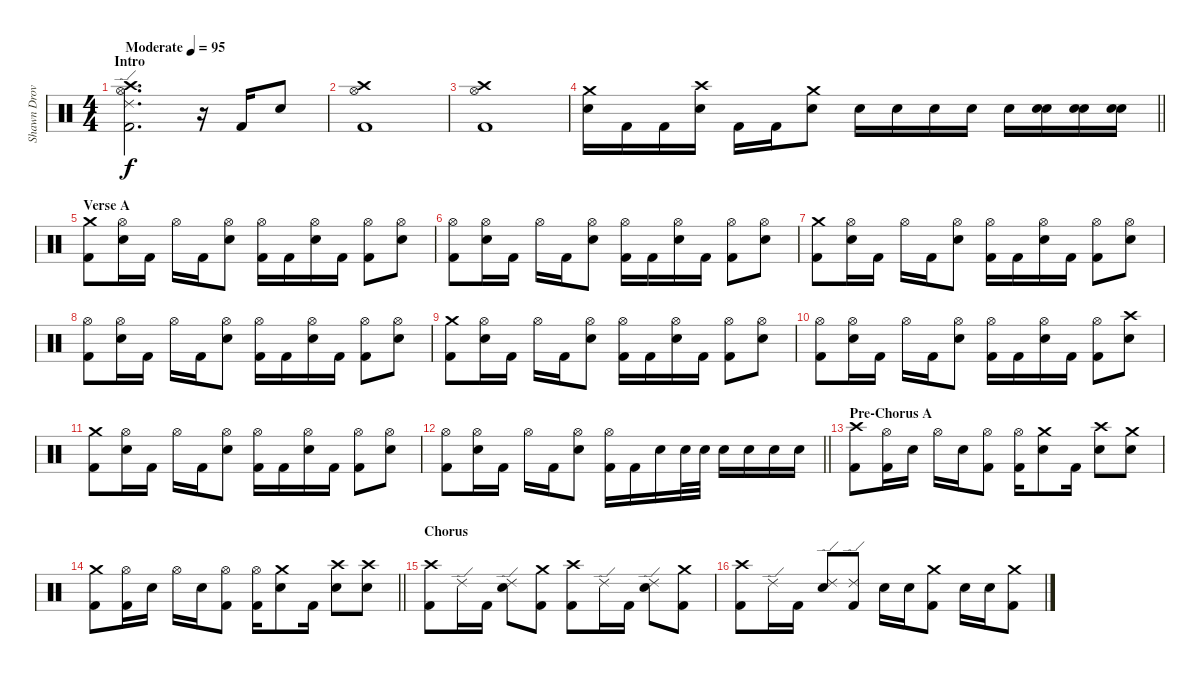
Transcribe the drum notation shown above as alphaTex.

\track ("Shawn Drover" "Shawn Drov") {instrument percussion}
\staff {score}
\articulation defaults
\ts (4 4)
\section ("" "Intro")
\tempo (95 "Moderate")
\clef neutral
\ks c
("Crash high (hit)" "Hi-Hat (open)" "Ride (edge) 2" "Kick (hit) 2").2{d dy f} r.16 "Kick (hit) 2".16 "Electric Snare (hit)".8 |
("Crash high (hit)" "Hi-Hat (open)" "Kick (hit) 2").1 |
("Crash high (hit)" "Hi-Hat (open)" "Kick (hit) 2").1 |
\barLineRight lightlight
("Crash medium (hit)" "Electric Snare (hit)").16 "Kick (hit) 2".16 "Kick (hit) 2".16 ("Crash high (hit)" "Electric Snare (hit)").16 "Kick (hit) 2".16 "Kick (hit) 2".16 ("Crash medium (hit)" "Electric Snare (hit)").8 "Electric Snare (hit)".16 "Electric Snare (hit)".16 "Electric Snare (hit)".16 "Electric Snare (hit)".16 "Electric Snare (hit)".16 ("Electric Snare (hit)" "Electric Snare (hit)").16 ("Electric Snare (hit)" "Electric Snare (hit)").16 ("Electric Snare (hit)" "Electric Snare (hit)").16 |
\section ("" "Verse A")
("Crash medium (hit)" "Kick (hit) 2").8 ("Hi-Hat (open)" "Electric Snare (hit)").16 "Kick (hit) 2".16 "Hi-Hat (open)".16 "Kick (hit) 2".16 ("Hi-Hat (open)" "Electric Snare (hit)").8 ("Hi-Hat (open)" "Kick (hit) 2").16 "Kick (hit) 2".16 ("Hi-Hat (open)" "Electric Snare (hit)").16 "Kick (hit) 2".16 ("Hi-Hat (open)" "Kick (hit) 2").8 ("Hi-Hat (open)" "Electric Snare (hit)").8 |
("Hi-Hat (open)" "Kick (hit) 2").8 ("Hi-Hat (open)" "Electric Snare (hit)").16 "Kick (hit) 2".16 "Hi-Hat (open)".16 "Kick (hit) 2".16 ("Hi-Hat (open)" "Electric Snare (hit)").8 ("Hi-Hat (open)" "Kick (hit) 2").16 "Kick (hit) 2".16 ("Hi-Hat (open)" "Electric Snare (hit)").16 "Kick (hit) 2".16 ("Hi-Hat (open)" "Kick (hit) 2").8 ("Hi-Hat (open)" "Electric Snare (hit)").8 |
("Crash medium (hit)" "Kick (hit) 2").8 ("Hi-Hat (open)" "Electric Snare (hit)").16 "Kick (hit) 2".16 "Hi-Hat (open)".16 "Kick (hit) 2".16 ("Hi-Hat (open)" "Electric Snare (hit)").8 ("Hi-Hat (open)" "Kick (hit) 2").16 "Kick (hit) 2".16 ("Hi-Hat (open)" "Electric Snare (hit)").16 "Kick (hit) 2".16 ("Hi-Hat (open)" "Kick (hit) 2").8 ("Hi-Hat (open)" "Electric Snare (hit)").8 |
("Hi-Hat (open)" "Kick (hit) 2").8 ("Hi-Hat (open)" "Electric Snare (hit)").16 "Kick (hit) 2".16 "Hi-Hat (open)".16 "Kick (hit) 2".16 ("Hi-Hat (open)" "Electric Snare (hit)").8 ("Hi-Hat (open)" "Kick (hit) 2").16 "Kick (hit) 2".16 ("Hi-Hat (open)" "Electric Snare (hit)").16 "Kick (hit) 2".16 ("Hi-Hat (open)" "Kick (hit) 2").8 ("Hi-Hat (open)" "Electric Snare (hit)").8 |
("Crash medium (hit)" "Kick (hit) 2").8 ("Hi-Hat (open)" "Electric Snare (hit)").16 "Kick (hit) 2".16 "Hi-Hat (open)".16 "Kick (hit) 2".16 ("Hi-Hat (open)" "Electric Snare (hit)").8 ("Hi-Hat (open)" "Kick (hit) 2").16 "Kick (hit) 2".16 ("Hi-Hat (open)" "Electric Snare (hit)").16 "Kick (hit) 2".16 ("Hi-Hat (open)" "Kick (hit) 2").8 ("Hi-Hat (open)" "Electric Snare (hit)").8 |
("Hi-Hat (open)" "Kick (hit) 2").8 ("Hi-Hat (open)" "Electric Snare (hit)").16 "Kick (hit) 2".16 "Hi-Hat (open)".16 "Kick (hit) 2".16 ("Hi-Hat (open)" "Electric Snare (hit)").8 ("Hi-Hat (open)" "Kick (hit) 2").16 "Kick (hit) 2".16 ("Hi-Hat (open)" "Electric Snare (hit)").16 "Kick (hit) 2".16 ("Hi-Hat (open)" "Kick (hit) 2").8 ("Crash high (hit)" "Electric Snare (hit)").8 |
("Crash medium (hit)" "Kick (hit) 2").8 ("Hi-Hat (open)" "Electric Snare (hit)").16 "Kick (hit) 2".16 "Hi-Hat (open)".16 "Kick (hit) 2".16 ("Hi-Hat (open)" "Electric Snare (hit)").8 ("Hi-Hat (open)" "Kick (hit) 2").16 "Kick (hit) 2".16 ("Hi-Hat (open)" "Electric Snare (hit)").16 "Kick (hit) 2".16 ("Hi-Hat (open)" "Kick (hit) 2").8 ("Hi-Hat (open)" "Electric Snare (hit)").8 |
\barLineRight lightlight
("Hi-Hat (open)" "Kick (hit) 2").8 ("Hi-Hat (open)" "Electric Snare (hit)").16 "Kick (hit) 2".16 "Hi-Hat (open)".16 "Kick (hit) 2".16 ("Hi-Hat (open)" "Electric Snare (hit)").8 ("Hi-Hat (open)" "Kick (hit) 2").16 "Kick (hit) 2".16 "Electric Snare (hit)".16 "Electric Snare (hit)".32 "Electric Snare (hit)".32 "Electric Snare (hit)".16 "Electric Snare (hit)".16 "Electric Snare (hit)".16 "Electric Snare (hit)".16 |
\section ("" "Pre-Chorus A")
("Crash high (hit)" "Kick (hit) 2").8 ("Hi-Hat (open)" "Kick (hit) 2").16 "Electric Snare (hit)".16 "Hi-Hat (open)".16 "Electric Snare (hit)".16 ("Hi-Hat (open)" "Kick (hit) 2").8 ("Hi-Hat (open)" "Kick (hit) 2").16 ("Crash medium (hit)" "Electric Snare (hit)").8 "Kick (hit) 2".16 ("Crash high (hit)" "Electric Snare (hit)").8 ("Crash medium (hit)" "Electric Snare (hit)").8 |
\barLineRight lightlight
("Crash medium (hit)" "Kick (hit) 2").8 ("Hi-Hat (open)" "Kick (hit) 2").16 "Electric Snare (hit)".16 "Hi-Hat (open)".16 "Electric Snare (hit)".16 ("Hi-Hat (open)" "Kick (hit) 2").8 ("Hi-Hat (open)" "Kick (hit) 2").16 ("Crash medium (hit)" "Electric Snare (hit)").8 "Kick (hit) 2".16 ("Crash high (hit)" "Electric Snare (hit)").8 ("Crash high (hit)" "Electric Snare (hit)").8 |
\section ("" "Chorus")
("Crash high (hit)" "Kick (hit) 2").8 "Ride (edge) 2".16 "Kick (hit) 2".16 ("Ride (edge) 2" "Electric Snare (hit)").8 ("Crash medium (hit)" "Kick (hit) 2").8 ("Crash high (hit)" "Kick (hit) 2").8 "Ride (edge) 2".16 "Kick (hit) 2".16 ("Ride (edge) 2" "Electric Snare (hit)").8 ("Crash medium (hit)" "Kick (hit) 2").8 |
("Crash high (hit)" "Kick (hit) 2").8 "Ride (edge) 2".16 "Kick (hit) 2".16 ("Ride (edge) 2" "Electric Snare (hit)").8 ("Ride (edge) 2" "Kick (hit) 2").8 "Electric Snare (hit)".16 "Electric Snare (hit)".16 ("Crash medium (hit)" "Kick (hit) 2").8 "Electric Snare (hit)".16 "Electric Snare (hit)".16 ("Crash medium (hit)" "Kick (hit) 2").8
